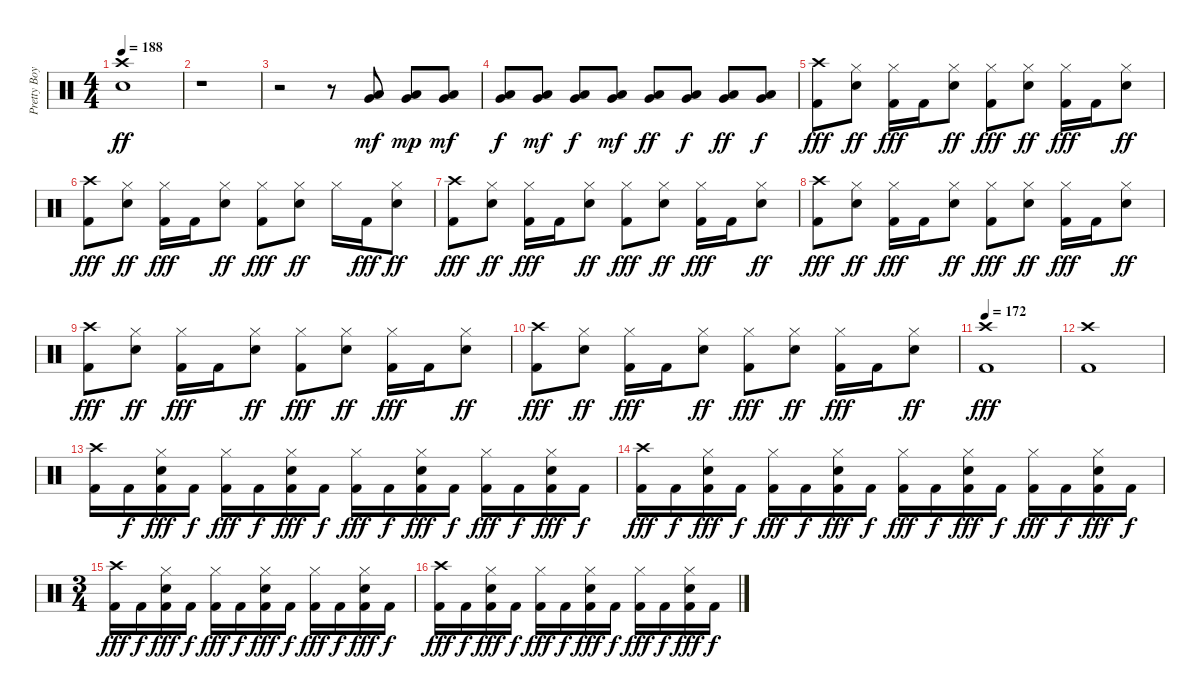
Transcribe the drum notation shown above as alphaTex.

\track ("Pretty Boy Geoff (Lars Drums)" "Pretty Boy") {instrument percussion}
\staff {score}
\articulation defaults
\ts (4 4)
\tempo 188
\clef neutral
\ks c
("Crash high (hit)" "Snare (hit) 2").1{dy ff} |
r.1 |
r.2 r.8 ("Very Low Tom (hit)" "Low Floor Tom (hit)").8{dy mf} ("Very Low Tom (hit)" "Low Floor Tom (hit)").8{dy mp} ("Very Low Tom (hit)" "Low Floor Tom (hit)").8{dy mf} |
("Very Low Tom (hit)" "Low Floor Tom (hit)").8{dy f} ("Very Low Tom (hit)" "Low Floor Tom (hit)").8{dy mf} ("Very Low Tom (hit)" "Low Floor Tom (hit)").8{dy f} ("Very Low Tom (hit)" "Low Floor Tom (hit)").8{dy mf} ("Very Low Tom (hit)" "Low Floor Tom (hit)").8{dy ff} ("Very Low Tom (hit)" "Low Floor Tom (hit)").8{dy f} ("Very Low Tom (hit)" "Low Floor Tom (hit)").8{dy ff} ("Very Low Tom (hit)" "Low Floor Tom (hit)").8{dy f} |
("Crash high (hit)" "Kick (hit) 2").8{dy fff} ("Hi-Hat (closed)" "Snare (hit) 2").8{dy ff} ("Hi-Hat (closed)" "Kick (hit) 2").16{dy fff} "Kick (hit) 2".16 ("Hi-Hat (closed)" "Snare (hit) 2").8{dy ff} ("Hi-Hat (closed)" "Kick (hit) 2").8{dy fff} ("Hi-Hat (closed)" "Snare (hit) 2").8{dy ff} ("Hi-Hat (closed)" "Kick (hit) 2").16{dy fff} "Kick (hit) 2".16 ("Hi-Hat (closed)" "Snare (hit) 2").8{dy ff} |
("Crash high (hit)" "Kick (hit) 2").8{dy fff} ("Hi-Hat (closed)" "Snare (hit) 2").8{dy ff} ("Hi-Hat (closed)" "Kick (hit) 2").16{dy fff} "Kick (hit) 2".16 ("Hi-Hat (closed)" "Snare (hit) 2").8{dy ff} ("Hi-Hat (closed)" "Kick (hit) 2").8{dy fff} ("Hi-Hat (closed)" "Snare (hit) 2").8{dy ff} "Hi-Hat (closed)".16 "Kick (hit) 2".16{dy fff} ("Hi-Hat (closed)" "Snare (hit) 2").8{dy ff} |
("Crash high (hit)" "Kick (hit) 2").8{dy fff} ("Hi-Hat (closed)" "Snare (hit) 2").8{dy ff} ("Hi-Hat (closed)" "Kick (hit) 2").16{dy fff} "Kick (hit) 2".16 ("Hi-Hat (closed)" "Snare (hit) 2").8{dy ff} ("Hi-Hat (closed)" "Kick (hit) 2").8{dy fff} ("Hi-Hat (closed)" "Snare (hit) 2").8{dy ff} ("Hi-Hat (closed)" "Kick (hit) 2").16{dy fff} "Kick (hit) 2".16 ("Hi-Hat (closed)" "Snare (hit) 2").8{dy ff} |
("Crash high (hit)" "Kick (hit) 2").8{dy fff} ("Hi-Hat (closed)" "Snare (hit) 2").8{dy ff} ("Hi-Hat (closed)" "Kick (hit) 2").16{dy fff} "Kick (hit) 2".16 ("Hi-Hat (closed)" "Snare (hit) 2").8{dy ff} ("Hi-Hat (closed)" "Kick (hit) 2").8{dy fff} ("Hi-Hat (closed)" "Snare (hit) 2").8{dy ff} ("Hi-Hat (closed)" "Kick (hit) 2").16{dy fff} "Kick (hit) 2".16 ("Hi-Hat (closed)" "Snare (hit) 2").8{dy ff} |
("Crash high (hit)" "Kick (hit) 2").8{dy fff} ("Hi-Hat (closed)" "Snare (hit) 2").8{dy ff} ("Hi-Hat (closed)" "Kick (hit) 2").16{dy fff} "Kick (hit) 2".16 ("Hi-Hat (closed)" "Snare (hit) 2").8{dy ff} ("Hi-Hat (closed)" "Kick (hit) 2").8{dy fff} ("Hi-Hat (closed)" "Snare (hit) 2").8{dy ff} ("Hi-Hat (closed)" "Kick (hit) 2").16{dy fff} "Kick (hit) 2".16 ("Hi-Hat (closed)" "Snare (hit) 2").8{dy ff} |
("Crash high (hit)" "Kick (hit) 2").8{dy fff} ("Hi-Hat (closed)" "Snare (hit) 2").8{dy ff} ("Hi-Hat (closed)" "Kick (hit) 2").16{dy fff} "Kick (hit) 2".16 ("Hi-Hat (closed)" "Snare (hit) 2").8{dy ff} ("Hi-Hat (closed)" "Kick (hit) 2").8{dy fff} ("Hi-Hat (closed)" "Snare (hit) 2").8{dy ff} ("Hi-Hat (closed)" "Kick (hit) 2").16{dy fff} "Kick (hit) 2".16 ("Hi-Hat (closed)" "Snare (hit) 2").8{dy ff} |
\tempo 172
("Crash high (hit)" "Kick (hit) 2").1{dy fff} |
("Crash high (hit)" "Kick (hit) 2").1 |
("Crash high (hit)" "Kick (hit) 2").16 "Kick (hit) 2".16{dy f} ("Hi-Hat (closed)" "Snare (hit) 2" "Kick (hit) 2").16{dy fff} "Kick (hit) 2".16{dy f} ("Hi-Hat (closed)" "Kick (hit) 2").16{dy fff} "Kick (hit) 2".16{dy f} ("Hi-Hat (closed)" "Snare (hit) 2" "Kick (hit) 2").16{dy fff} "Kick (hit) 2".16{dy f} ("Hi-Hat (closed)" "Kick (hit) 2").16{dy fff} "Kick (hit) 2".16{dy f} ("Hi-Hat (closed)" "Snare (hit) 2" "Kick (hit) 2").16{dy fff} "Kick (hit) 2".16{dy f} ("Hi-Hat (closed)" "Kick (hit) 2").16{dy fff} "Kick (hit) 2".16{dy f} ("Hi-Hat (closed)" "Snare (hit) 2" "Kick (hit) 2").16{dy fff} "Kick (hit) 2".16{dy f} |
("Crash high (hit)" "Kick (hit) 2").16{dy fff} "Kick (hit) 2".16{dy f} ("Hi-Hat (closed)" "Snare (hit) 2" "Kick (hit) 2").16{dy fff} "Kick (hit) 2".16{dy f} ("Hi-Hat (closed)" "Kick (hit) 2").16{dy fff} "Kick (hit) 2".16{dy f} ("Hi-Hat (closed)" "Snare (hit) 2" "Kick (hit) 2").16{dy fff} "Kick (hit) 2".16{dy f} ("Hi-Hat (closed)" "Kick (hit) 2").16{dy fff} "Kick (hit) 2".16{dy f} ("Hi-Hat (closed)" "Snare (hit) 2" "Kick (hit) 2").16{dy fff} "Kick (hit) 2".16{dy f} ("Hi-Hat (closed)" "Kick (hit) 2").16{dy fff} "Kick (hit) 2".16{dy f} ("Hi-Hat (closed)" "Snare (hit) 2" "Kick (hit) 2").16{dy fff} "Kick (hit) 2".16{dy f} |
\ts (3 4)
("Crash high (hit)" "Kick (hit) 2").16{dy fff} "Kick (hit) 2".16{dy f} ("Hi-Hat (closed)" "Snare (hit) 2" "Kick (hit) 2").16{dy fff} "Kick (hit) 2".16{dy f} ("Hi-Hat (closed)" "Kick (hit) 2").16{dy fff} "Kick (hit) 2".16{dy f} ("Hi-Hat (closed)" "Snare (hit) 2" "Kick (hit) 2").16{dy fff} "Kick (hit) 2".16{dy f} ("Hi-Hat (closed)" "Kick (hit) 2").16{dy fff} "Kick (hit) 2".16{dy f} ("Hi-Hat (closed)" "Snare (hit) 2" "Kick (hit) 2").16{dy fff} "Kick (hit) 2".16{dy f} |
("Crash high (hit)" "Kick (hit) 2").16{dy fff} "Kick (hit) 2".16{dy f} ("Hi-Hat (closed)" "Snare (hit) 2" "Kick (hit) 2").16{dy fff} "Kick (hit) 2".16{dy f} ("Hi-Hat (closed)" "Kick (hit) 2").16{dy fff} "Kick (hit) 2".16{dy f} ("Hi-Hat (closed)" "Snare (hit) 2" "Kick (hit) 2").16{dy fff} "Kick (hit) 2".16{dy f} ("Hi-Hat (closed)" "Kick (hit) 2").16{dy fff} "Kick (hit) 2".16{dy f} ("Hi-Hat (closed)" "Snare (hit) 2" "Kick (hit) 2").16{dy fff} "Kick (hit) 2".16{dy f}
